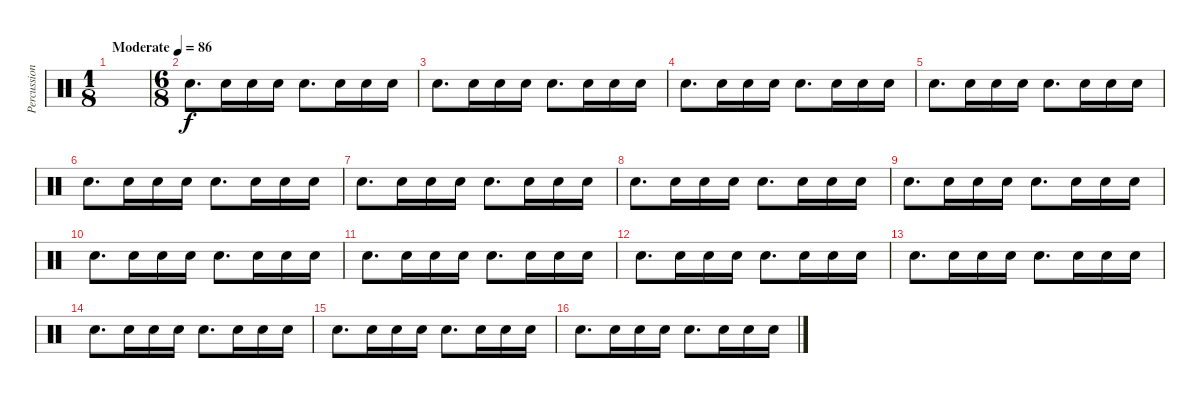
\track ("Percussion" "Percussion") {instrument percussion}
\staff {score}
\articulation defaults
\ts (1 8)
\tempo (86 "Moderate")
\clef neutral
\ks c
|
\ts (6 8)
"Hand Clap (hit)".8{d} "Hand Clap (hit)".16 "Hand Clap (hit)".16 "Hand Clap (hit)".16 "Hand Clap (hit)".8{d} "Hand Clap (hit)".16 "Hand Clap (hit)".16 "Hand Clap (hit)".16 |
"Hand Clap (hit)".8{d} "Hand Clap (hit)".16 "Hand Clap (hit)".16 "Hand Clap (hit)".16 "Hand Clap (hit)".8{d} "Hand Clap (hit)".16 "Hand Clap (hit)".16 "Hand Clap (hit)".16 |
"Hand Clap (hit)".8{d} "Hand Clap (hit)".16 "Hand Clap (hit)".16 "Hand Clap (hit)".16 "Hand Clap (hit)".8{d} "Hand Clap (hit)".16 "Hand Clap (hit)".16 "Hand Clap (hit)".16 |
"Hand Clap (hit)".8{d} "Hand Clap (hit)".16 "Hand Clap (hit)".16 "Hand Clap (hit)".16 "Hand Clap (hit)".8{d} "Hand Clap (hit)".16 "Hand Clap (hit)".16 "Hand Clap (hit)".16 |
"Hand Clap (hit)".8{d} "Hand Clap (hit)".16 "Hand Clap (hit)".16 "Hand Clap (hit)".16 "Hand Clap (hit)".8{d} "Hand Clap (hit)".16 "Hand Clap (hit)".16 "Hand Clap (hit)".16 |
"Hand Clap (hit)".8{d} "Hand Clap (hit)".16 "Hand Clap (hit)".16 "Hand Clap (hit)".16 "Hand Clap (hit)".8{d} "Hand Clap (hit)".16 "Hand Clap (hit)".16 "Hand Clap (hit)".16 |
"Hand Clap (hit)".8{d} "Hand Clap (hit)".16 "Hand Clap (hit)".16 "Hand Clap (hit)".16 "Hand Clap (hit)".8{d} "Hand Clap (hit)".16 "Hand Clap (hit)".16 "Hand Clap (hit)".16 |
"Hand Clap (hit)".8{d} "Hand Clap (hit)".16 "Hand Clap (hit)".16 "Hand Clap (hit)".16 "Hand Clap (hit)".8{d} "Hand Clap (hit)".16 "Hand Clap (hit)".16 "Hand Clap (hit)".16 |
"Hand Clap (hit)".8{d} "Hand Clap (hit)".16 "Hand Clap (hit)".16 "Hand Clap (hit)".16 "Hand Clap (hit)".8{d} "Hand Clap (hit)".16 "Hand Clap (hit)".16 "Hand Clap (hit)".16 |
"Hand Clap (hit)".8{d} "Hand Clap (hit)".16 "Hand Clap (hit)".16 "Hand Clap (hit)".16 "Hand Clap (hit)".8{d} "Hand Clap (hit)".16 "Hand Clap (hit)".16 "Hand Clap (hit)".16 |
"Hand Clap (hit)".8{d} "Hand Clap (hit)".16 "Hand Clap (hit)".16 "Hand Clap (hit)".16 "Hand Clap (hit)".8{d} "Hand Clap (hit)".16 "Hand Clap (hit)".16 "Hand Clap (hit)".16 |
"Hand Clap (hit)".8{d} "Hand Clap (hit)".16 "Hand Clap (hit)".16 "Hand Clap (hit)".16 "Hand Clap (hit)".8{d} "Hand Clap (hit)".16 "Hand Clap (hit)".16 "Hand Clap (hit)".16 |
"Hand Clap (hit)".8{d} "Hand Clap (hit)".16 "Hand Clap (hit)".16 "Hand Clap (hit)".16 "Hand Clap (hit)".8{d} "Hand Clap (hit)".16 "Hand Clap (hit)".16 "Hand Clap (hit)".16 |
"Hand Clap (hit)".8{d} "Hand Clap (hit)".16 "Hand Clap (hit)".16 "Hand Clap (hit)".16 "Hand Clap (hit)".8{d} "Hand Clap (hit)".16 "Hand Clap (hit)".16 "Hand Clap (hit)".16 |
"Hand Clap (hit)".8{d} "Hand Clap (hit)".16 "Hand Clap (hit)".16 "Hand Clap (hit)".16 "Hand Clap (hit)".8{d} "Hand Clap (hit)".16 "Hand Clap (hit)".16 "Hand Clap (hit)".16
